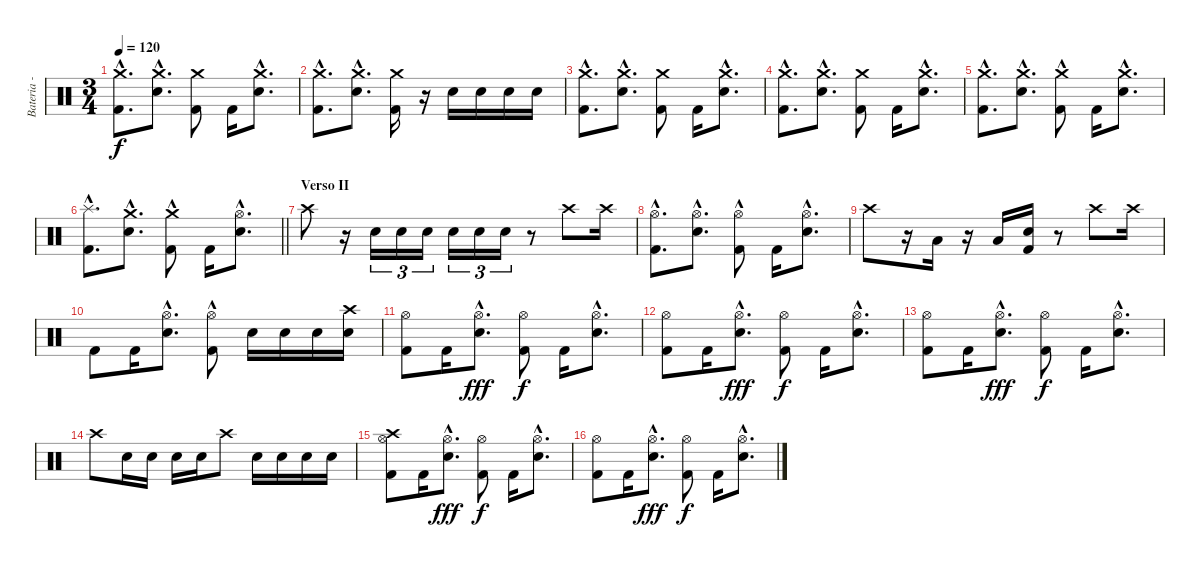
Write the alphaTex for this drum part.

\track ("Bateria - Larzon" "Bateria - ") {instrument percussion}
\staff {score}
\articulation defaults
\ts (3 4)
\tempo 120
\clef neutral
\ks c
("Kick (hit) 2"{hac} "Crash medium (hit)"{hac}).8{d dy f} ("Electric Snare (hit)"{hac} "Crash medium (hit)"{hac}).8{d} ("Kick (hit) 2" "Crash medium (hit)").8 "Kick (hit) 2".16 ("Electric Snare (hit)"{hac} "Crash medium (hit)"{hac}).8{d} |
("Kick (hit) 2"{hac} "Crash medium (hit)"{hac}).8{d} ("Electric Snare (hit)"{hac} "Crash medium (hit)"{hac}).8{d} ("Kick (hit) 2" "Crash medium (hit)").16 r.16 "Electric Snare (hit)".16 "Electric Snare (hit)".16 "Electric Snare (hit)".16 "Electric Snare (hit)".16 |
("Kick (hit) 2"{hac} "Crash medium (hit)"{hac}).8{d} ("Electric Snare (hit)"{hac} "Crash medium (hit)"{hac}).8{d} ("Kick (hit) 2" "Crash medium (hit)").8 "Kick (hit) 2".16 ("Electric Snare (hit)"{hac} "Crash medium (hit)"{hac}).8{d} |
("Kick (hit) 2"{hac} "Crash medium (hit)"{hac}).8{d} ("Electric Snare (hit)"{hac} "Crash medium (hit)"{hac}).8{d} ("Kick (hit) 2" "Crash medium (hit)").8 "Kick (hit) 2".16 ("Electric Snare (hit)"{hac} "Crash medium (hit)"{hac}).8{d} |
("Kick (hit) 2" "Crash medium (hit)"{hac}).8{d} ("Electric Snare (hit)"{hac} "Crash medium (hit)"{hac}).8{d} ("Kick (hit) 2"{hac} "Crash medium (hit)").8 "Kick (hit) 2".16 ("Electric Snare (hit)"{hac} "Crash medium (hit)"{hac}).8{d} |
\barLineRight lightlight
("Kick (hit) 2"{hac} "Splash (hit)"{hac}).8{d} ("Electric Snare (hit)"{hac} "Crash medium (hit)"{hac}).8{d} ("Kick (hit) 2"{hac} "Crash medium (hit)").8 "Kick (hit) 2".16 ("Electric Snare (hit)"{hac} "Hi-Hat (open)"{hac}).8{d} |
\section ("" "Verso II")
"Crash high (hit)".8 r.16 "Electric Snare (hit)".16{tu (3 2)} "Electric Snare (hit)".16{tu (3 2)} "Electric Snare (hit)".16{tu (3 2)} "Electric Snare (hit)".16{tu (3 2)} "Electric Snare (hit)".16{tu (3 2)} "Electric Snare (hit)".16{tu (3 2)} r.8 "Crash high (hit)".8 "Crash high (hit)".16 |
("Kick (hit) 2"{hac} "Hi-Hat (open)"{hac}).8{d} ("Electric Snare (hit)"{hac} "Hi-Hat (open)"{hac}).8{d} ("Kick (hit) 2"{hac} "Hi-Hat (open)").8 "Kick (hit) 2".16 ("Electric Snare (hit)"{hac} "Hi-Hat (open)"{hac}).8{d} |
"Crash high (hit)".8 r.16 "Low Floor Tom (hit)".16 r.16 "Low Floor Tom (hit)".16 ("Kick (hit) 2" "Electric Snare (hit)").16 r.8 "Crash high (hit)".8 "Crash high (hit)".16 |
"Kick (hit) 2".8 "Kick (hit) 2".16 ("Electric Snare (hit)"{hac} "Hi-Hat (open)"{hac}).8{d} ("Kick (hit) 2"{hac} "Hi-Hat (open)").8 "Electric Snare (hit)".16 "Electric Snare (hit)".16 "Electric Snare (hit)".16 ("Electric Snare (hit)" "Crash high (hit)").16 |
("Kick (hit) 2" "Hi-Hat (open)").8 "Kick (hit) 2".16 ("Electric Snare (hit)"{hac} "Hi-Hat (open)"{hac}).8{d dy fff} ("Kick (hit) 2" "Hi-Hat (open)").8{dy f} "Kick (hit) 2".16 ("Electric Snare (hit)"{hac} "Hi-Hat (open)"{hac}).8{d} |
("Kick (hit) 2" "Hi-Hat (open)").8 "Kick (hit) 2".16 ("Electric Snare (hit)"{hac} "Hi-Hat (open)"{hac}).8{d dy fff} ("Kick (hit) 2" "Hi-Hat (open)").8{dy f} "Kick (hit) 2".16 ("Electric Snare (hit)"{hac} "Hi-Hat (open)"{hac}).8{d} |
("Kick (hit) 2" "Hi-Hat (open)").8 "Kick (hit) 2".16 ("Electric Snare (hit)"{hac} "Hi-Hat (open)"{hac}).8{d dy fff} ("Kick (hit) 2" "Hi-Hat (open)").8{dy f} "Kick (hit) 2".16 ("Electric Snare (hit)"{hac} "Hi-Hat (open)"{hac}).8{d} |
"Crash high (hit)".8 "Electric Snare (hit)".16 "Electric Snare (hit)".16 "Electric Snare (hit)".16 "Electric Snare (hit)".16 "Crash high (hit)".8 "Electric Snare (hit)".16 "Electric Snare (hit)".16 "Electric Snare (hit)".16 "Electric Snare (hit)".16 |
("Kick (hit) 2" "Crash high (hit)" "Hi-Hat (open)").8 "Kick (hit) 2".16 ("Electric Snare (hit)"{hac} "Hi-Hat (open)"{hac}).8{d dy fff} ("Kick (hit) 2" "Hi-Hat (open)").8{dy f} "Kick (hit) 2".16 ("Electric Snare (hit)"{hac} "Hi-Hat (open)"{hac}).8{d} |
("Kick (hit) 2" "Hi-Hat (open)").8 "Kick (hit) 2".16 ("Electric Snare (hit)"{hac} "Hi-Hat (open)"{hac}).8{d dy fff} ("Kick (hit) 2" "Hi-Hat (open)").8{dy f} "Kick (hit) 2".16 ("Electric Snare (hit)"{hac} "Hi-Hat (open)"{hac}).8{d}
